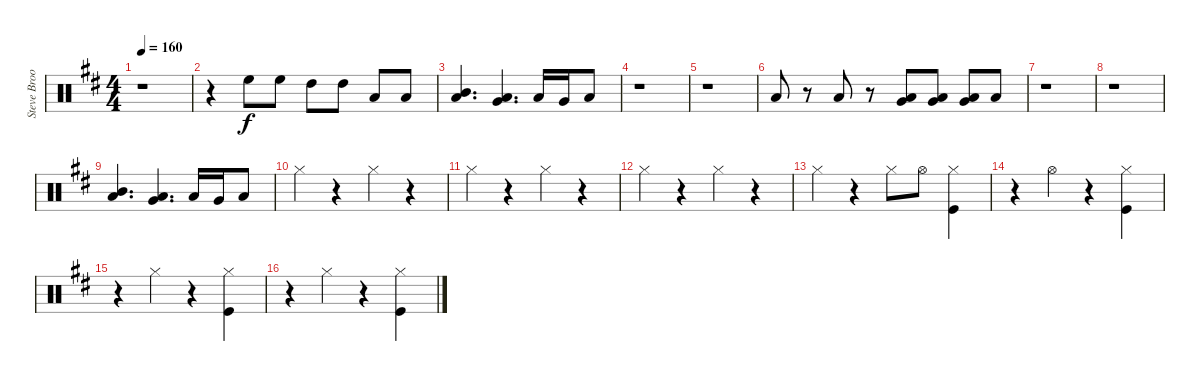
\track ("Steve Brookins Drums" "Steve Broo") {instrument percussion}
\staff {score}
\articulation defaults
\ts (4 4)
\tempo 160
\clef neutral
\ks d
r.1{dy f} |
r.4 "High Floor Tom (hit)".8 "High Floor Tom (hit)".8 "High Tom (hit)".8 "High Tom (hit)".8 "Low Tom (hit)".8 "Low Tom (hit)".8 |
("Mid Tom (hit)" "Low Tom (hit)").4{d} ("Low Tom (hit)" "Very Low Tom (hit)").4{d} "Low Tom (hit)".16 "Very Low Tom (hit)".16 "Low Floor Tom (hit)".8 |
r.1 |
r.1 |
"Low Tom (hit)".8 r.8 "Low Tom (hit)".8 r.8 ("Low Tom (hit)" "Very Low Tom (hit)").8 ("Low Tom (hit)" "Very Low Tom (hit)").8 ("Very Low Tom (hit)" "Low Floor Tom (hit)").8 "Low Floor Tom (hit)".8 |
r.1 |
r.1 |
("Mid Tom (hit)" "Low Tom (hit)").4{d} ("Low Tom (hit)" "Very Low Tom (hit)").4{d} "Low Tom (hit)".16 "Very Low Tom (hit)".16 "Low Floor Tom (hit)".8 |
"Hi-Hat (closed)".4 r.4 "Hi-Hat (closed)".4 r.4 |
"Hi-Hat (closed)".4 r.4 "Hi-Hat (closed)".4 r.4 |
"Hi-Hat (closed)".4 r.4 "Hi-Hat (closed)".4 r.4 |
"Hi-Hat (closed)".4 r.4 "Hi-Hat (closed)".8 "Hi-Hat (open)".8 ("Hi-Hat (closed)" "Kick (hit)").4 |
r.4 "Hi-Hat (open)".4 r.4 ("Hi-Hat (closed)" "Kick (hit)").4 |
r.4 "Hi-Hat (closed)".4 r.4 ("Hi-Hat (closed)" "Kick (hit)").4 |
r.4 "Hi-Hat (closed)".4 r.4 ("Hi-Hat (closed)" "Kick (hit)").4
